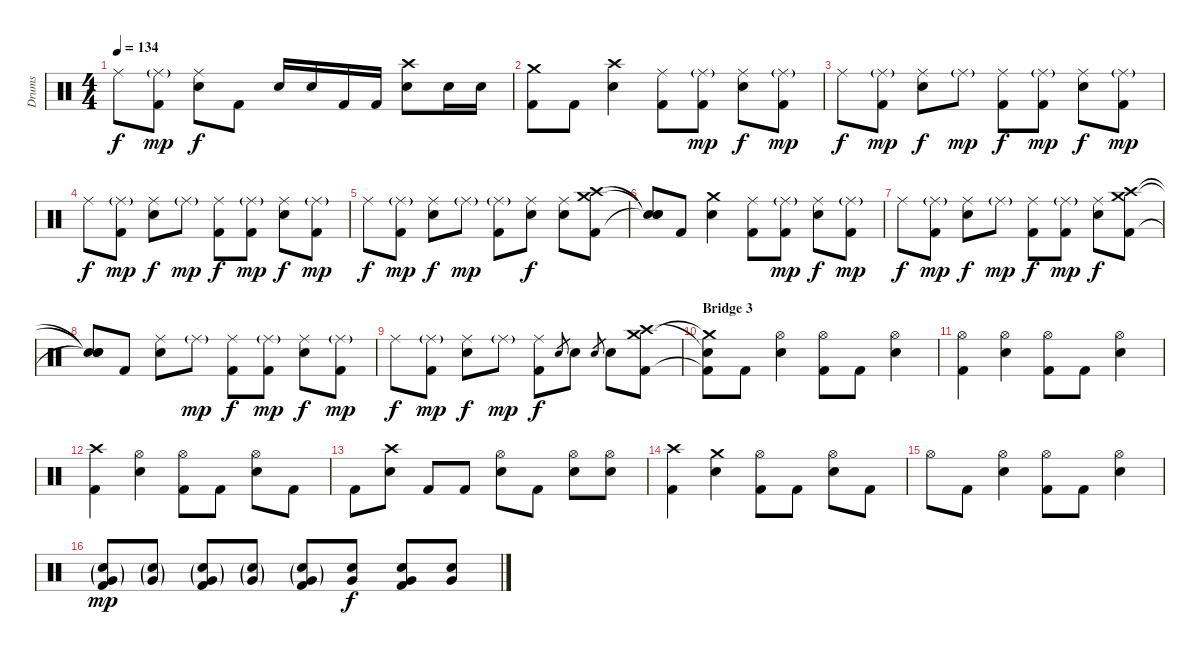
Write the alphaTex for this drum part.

\track ("Drums" "Drums") {instrument percussion}
\staff {score}
\articulation defaults
\ts (4 4)
\tempo 134
\clef neutral
\ks c "Ride (middle)".8{dy f}
("Ride (middle)"{g} "Kick (hit) 2").8{dy mp} ("Ride (middle)" "Snare (hit) 2").8{dy f} "Kick (hit) 2".8 "Snare (hit) 2".16 "Snare (hit) 2".16 "Kick (hit) 2".16 "Kick (hit) 2".16 ("Crash high (hit)" "Snare (hit) 2").8 "Snare (hit) 2".16 "Snare (hit) 2".16 |
("Crash medium (hit)" "Kick (hit) 2").8 "Kick (hit) 2".8 ("Crash high (hit)" "Snare (hit) 2").4 ("Ride (middle)" "Kick (hit) 2").8 ("Ride (middle)"{g} "Kick (hit) 2").8{dy mp} ("Ride (middle)" "Snare (hit) 2").8{dy f} ("Ride (middle)"{g} "Kick (hit) 2").8{dy mp} |
"Ride (middle)".8{dy f} ("Ride (middle)"{g} "Kick (hit) 2").8{dy mp} ("Ride (middle)" "Snare (hit) 2").8{dy f} "Ride (middle)"{g}.8{dy mp} ("Ride (middle)" "Kick (hit) 2").8{dy f} ("Ride (middle)"{g} "Kick (hit) 2").8{dy mp} ("Ride (middle)" "Snare (hit) 2").8{dy f} ("Ride (middle)"{g} "Kick (hit) 2").8{dy mp} |
"Ride (middle)".8{dy f} ("Ride (middle)"{g} "Kick (hit) 2").8{dy mp} ("Ride (middle)" "Snare (hit) 2").8{dy f} "Ride (middle)"{g}.8{dy mp} ("Ride (middle)" "Kick (hit) 2").8{dy f} ("Ride (middle)"{g} "Kick (hit) 2").8{dy mp} ("Ride (middle)" "Snare (hit) 2").8{dy f} ("Ride (middle)"{g} "Kick (hit) 2").8{dy mp} |
"Ride (middle)".8{dy f} ("Ride (middle)"{g} "Kick (hit) 2").8{dy mp} ("Ride (middle)" "Snare (hit) 2").8{dy f} "Ride (middle)"{g}.8{dy mp} ("Ride (middle)"{g} "Kick (hit) 2").8 ("Ride (middle)" "Snare (hit) 2").8{dy f} ("Ride (middle)" "Snare (hit) 2").8 ("Crash medium (hit)" "Crash high (hit)" "Kick (hit) 2").8 |
("Snare (hit)"{t} "Snare (hit)"{t} "Snare (hit)"{t}).8 "Kick (hit) 2".8 ("Crash medium (hit)" "Snare (hit) 2").4 ("Ride (middle)" "Kick (hit) 2").8 ("Ride (middle)"{g} "Kick (hit) 2").8{dy mp} ("Ride (middle)" "Snare (hit) 2").8{dy f} ("Ride (middle)"{g} "Kick (hit) 2").8{dy mp} |
"Ride (middle)".8{dy f} ("Ride (middle)"{g} "Kick (hit) 2").8{dy mp} ("Ride (middle)" "Snare (hit) 2").8{dy f} "Ride (middle)"{g}.8{dy mp} ("Ride (middle)" "Kick (hit) 2").8{dy f} ("Ride (middle)"{g} "Kick (hit) 2").8{dy mp} ("Ride (middle)" "Snare (hit) 2").8{dy f} ("Crash medium (hit)" "Crash high (hit)" "Kick (hit) 2").8 |
("Snare (hit)"{t} "Snare (hit)"{t} "Snare (hit)"{t}).8 "Kick (hit) 2".8 ("Ride (middle)" "Snare (hit) 2").8 "Ride (middle)"{g}.8{dy mp} ("Ride (middle)" "Kick (hit) 2").8{dy f} ("Ride (middle)"{g} "Kick (hit) 2").8{dy mp} ("Ride (middle)" "Snare (hit) 2").8{dy f} ("Ride (middle)"{g} "Kick (hit) 2").8{dy mp} |
"Ride (middle)".8{dy f} ("Ride (middle)"{g} "Kick (hit) 2").8{dy mp} ("Ride (middle)" "Snare (hit) 2").8{dy f} "Ride (middle)"{g}.8{dy mp} ("Ride (middle)" "Kick (hit) 2").8{dy f} "Snare (hit) 2".8{gr} "Snare (hit) 2".8 "Snare (hit) 2".8{gr} "Snare (hit) 2".8 ("Crash medium (hit)" "Crash high (hit)" "Kick (hit) 2").8 |
\section ("" "Bridge 3")
("Crash medium (hit)"{t} "Snare (hit)"{t} "Kick (hit) 2"{t}).8 "Kick (hit) 2".8 ("Hi-Hat (open)" "Snare (hit) 2").4 ("Hi-Hat (open)" "Kick (hit) 2").8 "Kick (hit) 2".8 ("Hi-Hat (open)" "Snare (hit) 2").4 |
("Hi-Hat (open)" "Kick (hit) 2").4 ("Hi-Hat (open)" "Snare (hit) 2").4 ("Hi-Hat (open)" "Kick (hit) 2").8 "Kick (hit) 2".8 ("Hi-Hat (open)" "Snare (hit) 2").4 |
("Crash high (hit)" "Kick (hit) 2").4 ("Hi-Hat (open)" "Snare (hit) 2").4 ("Hi-Hat (open)" "Kick (hit) 2").8 "Kick (hit) 2".8 ("Hi-Hat (open)" "Snare (hit) 2").8 "Kick (hit) 2".8 |
"Kick (hit) 2".8 ("Crash high (hit)" "Snare (hit) 2").8 "Kick (hit) 2".8 "Kick (hit) 2".8 ("Hi-Hat (open)" "Snare (hit) 2").8 "Kick (hit) 2".8 ("Hi-Hat (open)" "Snare (hit) 2").8 ("Hi-Hat (open)" "Snare (hit) 2").8 |
("Crash high (hit)" "Kick (hit) 2").4 ("Crash medium (hit)" "Snare (hit) 2").4 ("Hi-Hat (open)" "Kick (hit) 2").8 "Kick (hit) 2".8 ("Hi-Hat (open)" "Snare (hit) 2").8 "Kick (hit) 2".8 |
"Hi-Hat (open)".8 "Kick (hit) 2".8 ("Hi-Hat (open)" "Snare (hit) 2").4 ("Hi-Hat (open)" "Kick (hit) 2").8 "Kick (hit) 2".8 ("Hi-Hat (open)" "Snare (hit) 2").4 |
("Very Low Tom (hit)"{g} "Snare (hit) 2"{g} "Kick (hit) 2").8{dy mp volume 10} ("Very Low Tom (hit)"{g} "Snare (hit) 2"{g}).8{volume 14} ("Very Low Tom (hit)"{g} "Snare (hit) 2"{g} "Kick (hit) 2").8 ("Very Low Tom (hit)"{g} "Snare (hit) 2"{g}).8 ("Very Low Tom (hit)"{g} "Snare (hit) 2"{g} "Kick (hit) 2").8 ("Very Low Tom (hit)" "Snare (hit) 2").8{dy f} ("Very Low Tom (hit)" "Snare (hit) 2" "Kick (hit) 2").8 ("Very Low Tom (hit)" "Snare (hit) 2").8
